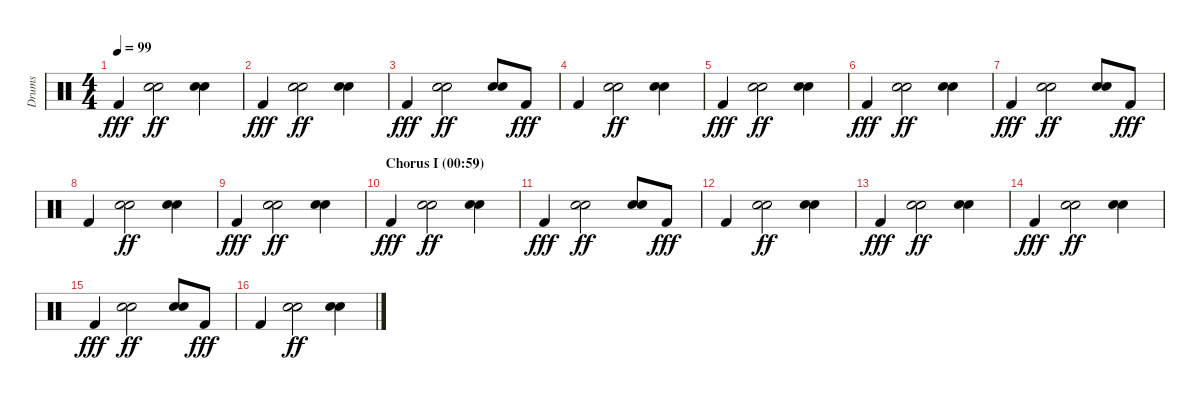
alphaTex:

\track ("Drums" "Drums") {instrument percussion}
\staff {score}
\articulation defaults
\ts (4 4)
\tempo 99
\clef neutral
\ks c "Kick (hit) 2".4{dy fff}
("Snare (hit) 2" "Hand Clap (hit)").2{dy ff} ("Snare (hit) 2" "Hand Clap (hit)").4 |
"Kick (hit) 2".4{dy fff} ("Snare (hit) 2" "Hand Clap (hit)").2{dy ff} ("Snare (hit) 2" "Hand Clap (hit)").4 |
"Kick (hit) 2".4{dy fff} ("Snare (hit) 2" "Hand Clap (hit)").2{dy ff} ("Snare (hit) 2" "Hand Clap (hit)").8 "Kick (hit) 2".8{dy fff} |
"Kick (hit) 2".4 ("Snare (hit) 2" "Hand Clap (hit)").2{dy ff} ("Snare (hit) 2" "Hand Clap (hit)").4 |
"Kick (hit) 2".4{dy fff} ("Snare (hit) 2" "Hand Clap (hit)").2{dy ff} ("Snare (hit) 2" "Hand Clap (hit)").4 |
"Kick (hit) 2".4{dy fff} ("Snare (hit) 2" "Hand Clap (hit)").2{dy ff} ("Snare (hit) 2" "Hand Clap (hit)").4 |
"Kick (hit) 2".4{dy fff} ("Snare (hit) 2" "Hand Clap (hit)").2{dy ff} ("Snare (hit) 2" "Hand Clap (hit)").8 "Kick (hit) 2".8{dy fff} |
"Kick (hit) 2".4 ("Snare (hit) 2" "Hand Clap (hit)").2{dy ff} ("Snare (hit) 2" "Hand Clap (hit)").4 |
"Kick (hit) 2".4{dy fff} ("Snare (hit) 2" "Hand Clap (hit)").2{dy ff} ("Snare (hit) 2" "Hand Clap (hit)").4 |
\section ("" "Chorus I (00:59)")
"Kick (hit) 2".4{dy fff} ("Snare (hit) 2" "Hand Clap (hit)").2{dy ff} ("Snare (hit) 2" "Hand Clap (hit)").4 |
"Kick (hit) 2".4{dy fff} ("Snare (hit) 2" "Hand Clap (hit)").2{dy ff} ("Snare (hit) 2" "Hand Clap (hit)").8 "Kick (hit) 2".8{dy fff} |
"Kick (hit) 2".4 ("Snare (hit) 2" "Hand Clap (hit)").2{dy ff} ("Snare (hit) 2" "Hand Clap (hit)").4 |
"Kick (hit) 2".4{dy fff} ("Snare (hit) 2" "Hand Clap (hit)").2{dy ff} ("Snare (hit) 2" "Hand Clap (hit)").4 |
"Kick (hit) 2".4{dy fff} ("Snare (hit) 2" "Hand Clap (hit)").2{dy ff} ("Snare (hit) 2" "Hand Clap (hit)").4 |
"Kick (hit) 2".4{dy fff} ("Snare (hit) 2" "Hand Clap (hit)").2{dy ff} ("Snare (hit) 2" "Hand Clap (hit)").8 "Kick (hit) 2".8{dy fff} |
"Kick (hit) 2".4 ("Snare (hit) 2" "Hand Clap (hit)").2{dy ff} ("Snare (hit) 2" "Hand Clap (hit)").4
